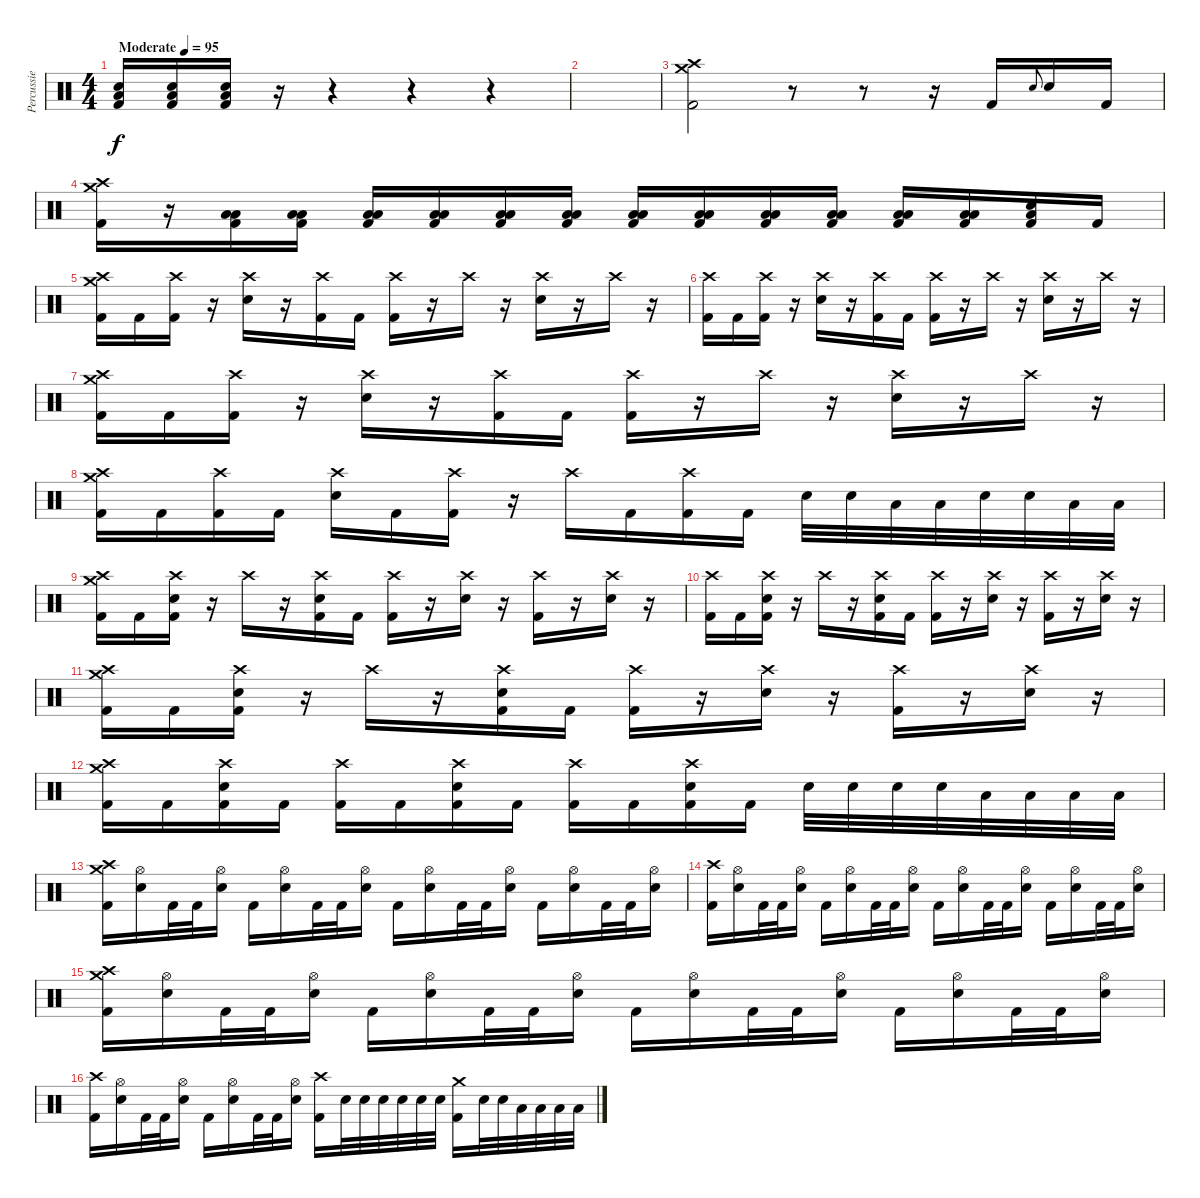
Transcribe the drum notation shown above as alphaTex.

\track ("Percussie" "Percussie") {instrument percussion}
\staff {score}
\articulation defaults
\ts (4 4)
\tempo (95 "Moderate")
\clef neutral
\ks c
("Low Floor Tom (hit)" "Electric Snare (hit)" "Kick (hit) 2").16{dy f} ("Low Floor Tom (hit)" "Electric Snare (hit)" "Kick (hit) 2").16 ("Low Floor Tom (hit)" "Electric Snare (hit)" "Kick (hit) 2").16 r.16 r.4 r.4 r.4 |
|
("Crash medium (hit)" "Crash high (hit)" "Kick (hit) 2").2 r.8 r.8 r.16 "Kick (hit) 2".16 "Electric Snare (hit)".8{gr onbeat} "Electric Snare (hit)".16 "Kick (hit) 2".16 |
("Crash medium (hit)" "Crash high (hit)" "Kick (hit) 2").16 r.16 ("Low Tom (hit)" "Low Floor Tom (hit)" "Kick (hit) 2").16 ("Low Tom (hit)" "Low Floor Tom (hit)" "Kick (hit) 2").16 ("Low Tom (hit)" "Low Floor Tom (hit)" "Kick (hit) 2").16 ("Low Tom (hit)" "Low Floor Tom (hit)" "Kick (hit) 2").16 ("Low Tom (hit)" "Low Floor Tom (hit)" "Kick (hit) 2").16 ("Low Tom (hit)" "Low Floor Tom (hit)" "Kick (hit) 2").16 ("Low Tom (hit)" "Low Floor Tom (hit)" "Kick (hit) 2").16 ("Low Tom (hit)" "Low Floor Tom (hit)" "Kick (hit) 2").16 ("Low Tom (hit)" "Low Floor Tom (hit)" "Kick (hit) 2").16 ("Low Tom (hit)" "Low Floor Tom (hit)" "Kick (hit) 2").16 ("Low Tom (hit)" "Low Floor Tom (hit)" "Kick (hit) 2").16 ("Low Tom (hit)" "Low Floor Tom (hit)" "Kick (hit) 2").16 ("Low Floor Tom (hit)" "Electric Snare (hit)" "Kick (hit) 2").16 "Kick (hit) 2".16 |
("Crash medium (hit)" "Crash high (hit)" "Kick (hit) 2").16 "Kick (hit) 2".16 ("Crash high (hit)" "Kick (hit) 2").16 r.16 ("Crash high (hit)" "Electric Snare (hit)").16 r.16 ("Crash high (hit)" "Kick (hit) 2").16 "Kick (hit) 2".16 ("Crash high (hit)" "Kick (hit) 2").16 r.16 "Crash high (hit)".16 r.16 ("Crash high (hit)" "Electric Snare (hit)").16 r.16 "Crash high (hit)".16 r.16 |
("Crash high (hit)" "Kick (hit) 2").16 "Kick (hit) 2".16 ("Crash high (hit)" "Kick (hit) 2").16 r.16 ("Crash high (hit)" "Electric Snare (hit)").16 r.16 ("Crash high (hit)" "Kick (hit) 2").16 "Kick (hit) 2".16 ("Crash high (hit)" "Kick (hit) 2").16 r.16 "Crash high (hit)".16 r.16 ("Crash high (hit)" "Electric Snare (hit)").16 r.16 "Crash high (hit)".16 r.16 |
("Crash medium (hit)" "Crash high (hit)" "Kick (hit) 2").16 "Kick (hit) 2".16 ("Crash high (hit)" "Kick (hit) 2").16 r.16 ("Crash high (hit)" "Electric Snare (hit)").16 r.16 ("Crash high (hit)" "Kick (hit) 2").16 "Kick (hit) 2".16 ("Crash high (hit)" "Kick (hit) 2").16 r.16 "Crash high (hit)".16 r.16 ("Crash high (hit)" "Electric Snare (hit)").16 r.16 "Crash high (hit)".16 r.16 |
("Crash medium (hit)" "Crash high (hit)" "Kick (hit) 2").16 "Kick (hit) 2".16 ("Crash high (hit)" "Kick (hit) 2").16 "Kick (hit) 2".16 ("Crash high (hit)" "Electric Snare (hit)").16 "Kick (hit) 2".16 ("Crash high (hit)" "Kick (hit) 2").16 r.16 "Crash high (hit)".16 "Kick (hit) 2".16 ("Crash high (hit)" "Kick (hit) 2").16 "Kick (hit) 2".16 "Electric Snare (hit)".32 "Electric Snare (hit)".32 "Low Tom (hit)".32 "Low Tom (hit)".32 "Electric Snare (hit)".32 "Electric Snare (hit)".32 "Low Floor Tom (hit)".32 "Low Floor Tom (hit)".32 |
("Crash medium (hit)" "Crash high (hit)" "Kick (hit) 2").16 "Kick (hit) 2".16 ("Crash high (hit)" "Electric Snare (hit)" "Kick (hit) 2").16 r.16 "Crash high (hit)".16 r.16 ("Crash high (hit)" "Electric Snare (hit)" "Kick (hit) 2").16 "Kick (hit) 2".16 ("Crash high (hit)" "Kick (hit) 2").16 r.16 ("Crash high (hit)" "Electric Snare (hit)").16 r.16 ("Crash high (hit)" "Kick (hit) 2").16 r.16 ("Crash high (hit)" "Electric Snare (hit)").16 r.16 |
("Crash high (hit)" "Kick (hit) 2").16 "Kick (hit) 2".16 ("Crash high (hit)" "Electric Snare (hit)" "Kick (hit) 2").16 r.16 "Crash high (hit)".16 r.16 ("Crash high (hit)" "Electric Snare (hit)" "Kick (hit) 2").16 "Kick (hit) 2".16 ("Crash high (hit)" "Kick (hit) 2").16 r.16 ("Crash high (hit)" "Electric Snare (hit)").16 r.16 ("Crash high (hit)" "Kick (hit) 2").16 r.16 ("Crash high (hit)" "Electric Snare (hit)").16 r.16 |
("Crash medium (hit)" "Crash high (hit)" "Kick (hit) 2").16 "Kick (hit) 2".16 ("Crash high (hit)" "Electric Snare (hit)" "Kick (hit) 2").16 r.16 "Crash high (hit)".16 r.16 ("Crash high (hit)" "Electric Snare (hit)" "Kick (hit) 2").16 "Kick (hit) 2".16 ("Crash high (hit)" "Kick (hit) 2").16 r.16 ("Crash high (hit)" "Electric Snare (hit)").16 r.16 ("Crash high (hit)" "Kick (hit) 2").16 r.16 ("Crash high (hit)" "Electric Snare (hit)").16 r.16 |
("Crash medium (hit)" "Crash high (hit)" "Kick (hit) 2").16 "Kick (hit) 2".16 ("Crash high (hit)" "Electric Snare (hit)" "Kick (hit) 2").16 "Kick (hit) 2".16 ("Crash high (hit)" "Kick (hit) 2").16 "Kick (hit) 2".16 ("Crash high (hit)" "Electric Snare (hit)" "Kick (hit) 2").16 "Kick (hit) 2".16 ("Crash high (hit)" "Kick (hit) 2").16 "Kick (hit) 2".16 ("Crash high (hit)" "Electric Snare (hit)" "Kick (hit) 2").16 "Kick (hit) 2".16 "Electric Snare (hit)".32 "Electric Snare (hit)".32 "Electric Snare (hit)".32 "Electric Snare (hit)".32 "Low Tom (hit)".32 "Low Tom (hit)".32 "Low Tom (hit)".32 "Low Tom (hit)".32 |
("Crash medium (hit)" "Crash high (hit)" "Kick (hit) 2").16 ("Hi-Hat (open)" "Electric Snare (hit)").16 "Kick (hit) 2".32 "Kick (hit) 2".32 ("Hi-Hat (open)" "Electric Snare (hit)").16 "Kick (hit) 2".16 ("Hi-Hat (open)" "Electric Snare (hit)").16 "Kick (hit) 2".32 "Kick (hit) 2".32 ("Hi-Hat (open)" "Electric Snare (hit)").16 "Kick (hit) 2".16 ("Hi-Hat (open)" "Electric Snare (hit)").16 "Kick (hit) 2".32 "Kick (hit) 2".32 ("Hi-Hat (open)" "Electric Snare (hit)").16 "Kick (hit) 2".16 ("Hi-Hat (open)" "Electric Snare (hit)").16 "Kick (hit) 2".32 "Kick (hit) 2".32 ("Hi-Hat (open)" "Electric Snare (hit)").16 |
("Crash high (hit)" "Kick (hit) 2").16 ("Hi-Hat (open)" "Electric Snare (hit)").16 "Kick (hit) 2".32 "Kick (hit) 2".32 ("Hi-Hat (open)" "Electric Snare (hit)").16 "Kick (hit) 2".16 ("Hi-Hat (open)" "Electric Snare (hit)").16 "Kick (hit) 2".32 "Kick (hit) 2".32 ("Hi-Hat (open)" "Electric Snare (hit)").16 "Kick (hit) 2".16 ("Hi-Hat (open)" "Electric Snare (hit)").16 "Kick (hit) 2".32 "Kick (hit) 2".32 ("Hi-Hat (open)" "Electric Snare (hit)").16 "Kick (hit) 2".16 ("Hi-Hat (open)" "Electric Snare (hit)").16 "Kick (hit) 2".32 "Kick (hit) 2".32 ("Hi-Hat (open)" "Electric Snare (hit)").16 |
("Crash medium (hit)" "Crash high (hit)" "Kick (hit) 2").16 ("Hi-Hat (open)" "Electric Snare (hit)").16 "Kick (hit) 2".32 "Kick (hit) 2".32 ("Hi-Hat (open)" "Electric Snare (hit)").16 "Kick (hit) 2".16 ("Hi-Hat (open)" "Electric Snare (hit)").16 "Kick (hit) 2".32 "Kick (hit) 2".32 ("Hi-Hat (open)" "Electric Snare (hit)").16 "Kick (hit) 2".16 ("Hi-Hat (open)" "Electric Snare (hit)").16 "Kick (hit) 2".32 "Kick (hit) 2".32 ("Hi-Hat (open)" "Electric Snare (hit)").16 "Kick (hit) 2".16 ("Hi-Hat (open)" "Electric Snare (hit)").16 "Kick (hit) 2".32 "Kick (hit) 2".32 ("Hi-Hat (open)" "Electric Snare (hit)").16 |
("Crash high (hit)" "Kick (hit) 2").16 ("Hi-Hat (open)" "Electric Snare (hit)").16 "Kick (hit) 2".32 "Kick (hit) 2".32 ("Hi-Hat (open)" "Electric Snare (hit)").16 "Kick (hit) 2".16 ("Hi-Hat (open)" "Electric Snare (hit)").16 "Kick (hit) 2".32 "Kick (hit) 2".32 ("Hi-Hat (open)" "Electric Snare (hit)").16 ("Crash high (hit)" "Kick (hit) 2").16 "Electric Snare (hit)".32 "Electric Snare (hit)".32 "Electric Snare (hit)".32 "Electric Snare (hit)".32 "Electric Snare (hit)".32 "Electric Snare (hit)".32 ("Crash medium (hit)" "Kick (hit) 2").16 "Electric Snare (hit)".32 "Electric Snare (hit)".32 "Low Tom (hit)".32 "Low Tom (hit)".32 "Low Floor Tom (hit)".32 "Low Floor Tom (hit)".32
